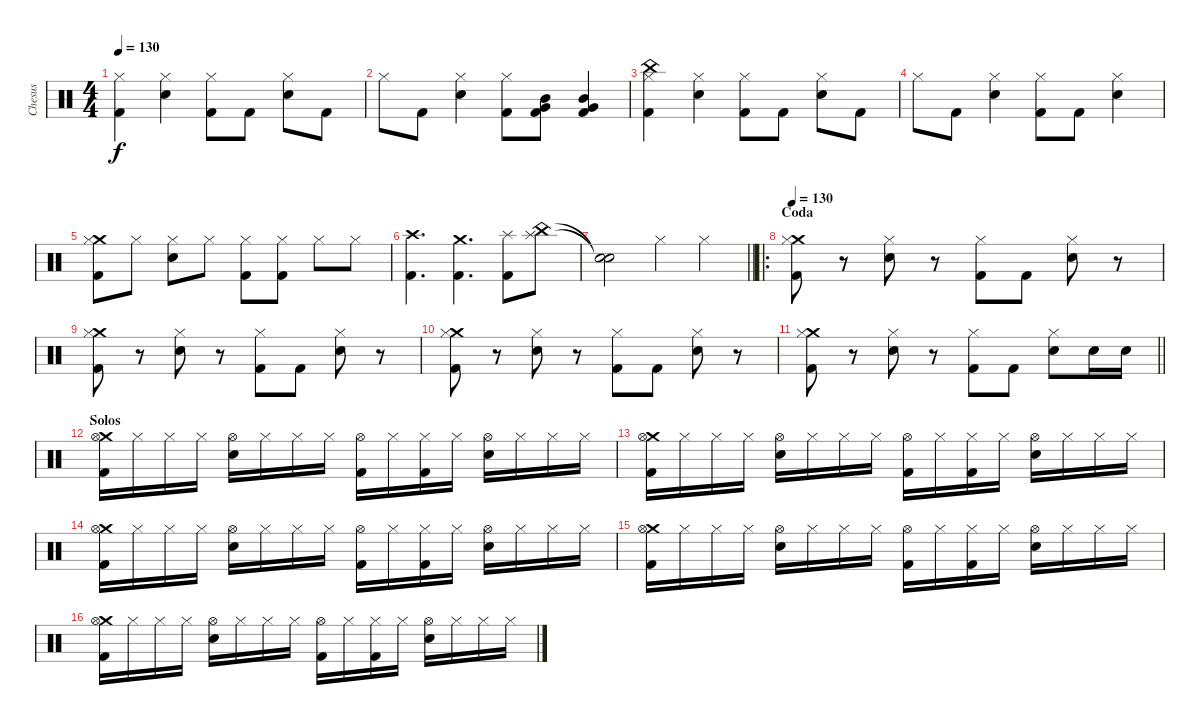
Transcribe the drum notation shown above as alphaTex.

\track ("Chesus" "Chesus") {instrument percussion}
\staff {score}
\articulation defaults
\ts (4 4)
\tempo 130
\clef neutral
\ks c
("Hi-Hat (closed)" "Kick (hit) 2").4{dy f} ("Hi-Hat (closed)" "Snare (hit) 2").4 ("Hi-Hat (closed)" "Kick (hit) 2").8 "Kick (hit) 2".8 ("Hi-Hat (closed)" "Snare (hit) 2").8 "Kick (hit) 2".8 |
"Hi-Hat (closed)".8 "Kick (hit) 2".8 ("Hi-Hat (closed)" "Snare (hit) 2").4 ("Hi-Hat (closed)" "Kick (hit) 2").8 ("Mid Tom (hit)" "Very Low Tom (hit)" "Kick (hit) 2").8 ("Mid Tom (hit)" "Very Low Tom (hit)" "Kick (hit) 2").4 |
("China (hit)" "Hi-Hat (closed)" "Kick (hit) 2").4 ("Hi-Hat (closed)" "Snare (hit) 2").4 ("Hi-Hat (closed)" "Kick (hit) 2").8 "Kick (hit) 2".8 ("Hi-Hat (closed)" "Snare (hit) 2").8 "Kick (hit) 2".8 |
"Hi-Hat (closed)".8 "Kick (hit) 2".8 ("Hi-Hat (closed)" "Snare (hit) 2").4 ("Hi-Hat (closed)" "Kick (hit) 2").8 "Kick (hit) 2".8 ("Hi-Hat (closed)" "Snare (hit) 2").4 |
("Crash medium (hit)" "Hi-Hat (closed)" "Kick (hit) 2").8 "Hi-Hat (closed)".8 ("Hi-Hat (closed)" "Snare (hit) 2").8 "Hi-Hat (closed)".8 ("Hi-Hat (closed)" "Kick (hit) 2").8 ("Hi-Hat (closed)" "Kick (hit) 2").8 "Hi-Hat (closed)".8 "Hi-Hat (closed)".8 |
("Crash high (hit)" "Kick (hit) 2").4{d} ("Crash medium (hit)" "Kick (hit) 2").4{d} ("Splash (hit)" "Kick (hit) 2").8 ("China (hit)" "Splash (hit)").8 |
\barLineRight lightlight
("Snare (hit)"{t} "Snare (hit)"{t}).2 "Hi-Hat (closed)".4 "Hi-Hat (closed)".4 |
\ro
\section ("" "Coda")
\tempo 130
("Crash medium (hit)" "Hi-Hat (closed)" "Kick (hit) 2").8 r.8 ("Hi-Hat (closed)" "Snare (hit) 2").8 r.8 ("Hi-Hat (closed)" "Kick (hit) 2").8 "Kick (hit) 2".8 ("Hi-Hat (closed)" "Snare (hit) 2").8 r.8 |
("Crash medium (hit)" "Hi-Hat (closed)" "Kick (hit) 2").8 r.8 ("Hi-Hat (closed)" "Snare (hit) 2").8 r.8 ("Hi-Hat (closed)" "Kick (hit) 2").8 "Kick (hit) 2".8 ("Hi-Hat (closed)" "Snare (hit) 2").8 r.8 |
("Crash medium (hit)" "Hi-Hat (closed)" "Kick (hit) 2").8 r.8 ("Hi-Hat (closed)" "Snare (hit) 2").8 r.8 ("Hi-Hat (closed)" "Kick (hit) 2").8 "Kick (hit) 2".8 ("Hi-Hat (closed)" "Snare (hit) 2").8 r.8 |
\barLineRight lightlight
("Crash medium (hit)" "Hi-Hat (closed)" "Kick (hit) 2").8 r.8 ("Hi-Hat (closed)" "Snare (hit) 2").8 r.8 ("Hi-Hat (closed)" "Kick (hit) 2").8 "Kick (hit) 2".8 ("Hi-Hat (closed)" "Snare (hit) 2").8 "Snare (hit) 2".16 "Snare (hit) 2".16 |
\section ("" "Solos")
("Crash medium (hit)" "Hi-Hat (open)" "Kick (hit) 2").16 "Hi-Hat (closed)".16 "Hi-Hat (closed)".16 "Hi-Hat (closed)".16 ("Hi-Hat (open)" "Snare (hit) 2").16 "Hi-Hat (closed)".16 "Hi-Hat (closed)".16 "Hi-Hat (closed)".16 ("Hi-Hat (open)" "Kick (hit) 2").16 "Hi-Hat (closed)".16 ("Hi-Hat (closed)" "Kick (hit) 2").16 "Hi-Hat (closed)".16 ("Hi-Hat (open)" "Snare (hit) 2").16 "Hi-Hat (closed)".16 "Hi-Hat (closed)".16 "Hi-Hat (closed)".16 |
("Crash medium (hit)" "Hi-Hat (open)" "Kick (hit) 2").16 "Hi-Hat (closed)".16 "Hi-Hat (closed)".16 "Hi-Hat (closed)".16 ("Hi-Hat (open)" "Snare (hit) 2").16 "Hi-Hat (closed)".16 "Hi-Hat (closed)".16 "Hi-Hat (closed)".16 ("Hi-Hat (open)" "Kick (hit) 2").16 "Hi-Hat (closed)".16 ("Hi-Hat (closed)" "Kick (hit) 2").16 "Hi-Hat (closed)".16 ("Hi-Hat (open)" "Snare (hit) 2").16 "Hi-Hat (closed)".16 "Hi-Hat (closed)".16 "Hi-Hat (closed)".16 |
("Crash medium (hit)" "Hi-Hat (open)" "Kick (hit) 2").16 "Hi-Hat (closed)".16 "Hi-Hat (closed)".16 "Hi-Hat (closed)".16 ("Hi-Hat (open)" "Snare (hit) 2").16 "Hi-Hat (closed)".16 "Hi-Hat (closed)".16 "Hi-Hat (closed)".16 ("Hi-Hat (open)" "Kick (hit) 2").16 "Hi-Hat (closed)".16 ("Hi-Hat (closed)" "Kick (hit) 2").16 "Hi-Hat (closed)".16 ("Hi-Hat (open)" "Snare (hit) 2").16 "Hi-Hat (closed)".16 "Hi-Hat (closed)".16 "Hi-Hat (closed)".16 |
("Crash medium (hit)" "Hi-Hat (open)" "Kick (hit) 2").16 "Hi-Hat (closed)".16 "Hi-Hat (closed)".16 "Hi-Hat (closed)".16 ("Hi-Hat (open)" "Snare (hit) 2").16 "Hi-Hat (closed)".16 "Hi-Hat (closed)".16 "Hi-Hat (closed)".16 ("Hi-Hat (open)" "Kick (hit) 2").16 "Hi-Hat (closed)".16 ("Hi-Hat (closed)" "Kick (hit) 2").16 "Hi-Hat (closed)".16 ("Hi-Hat (open)" "Snare (hit) 2").16 "Hi-Hat (closed)".16 "Hi-Hat (closed)".16 "Hi-Hat (closed)".16 |
("Crash medium (hit)" "Hi-Hat (open)" "Kick (hit) 2").16 "Hi-Hat (closed)".16 "Hi-Hat (closed)".16 "Hi-Hat (closed)".16 ("Hi-Hat (open)" "Snare (hit) 2").16 "Hi-Hat (closed)".16 "Hi-Hat (closed)".16 "Hi-Hat (closed)".16 ("Hi-Hat (open)" "Kick (hit) 2").16 "Hi-Hat (closed)".16 ("Hi-Hat (closed)" "Kick (hit) 2").16 "Hi-Hat (closed)".16 ("Hi-Hat (open)" "Snare (hit) 2").16 "Hi-Hat (closed)".16 "Hi-Hat (closed)".16 "Hi-Hat (closed)".16
